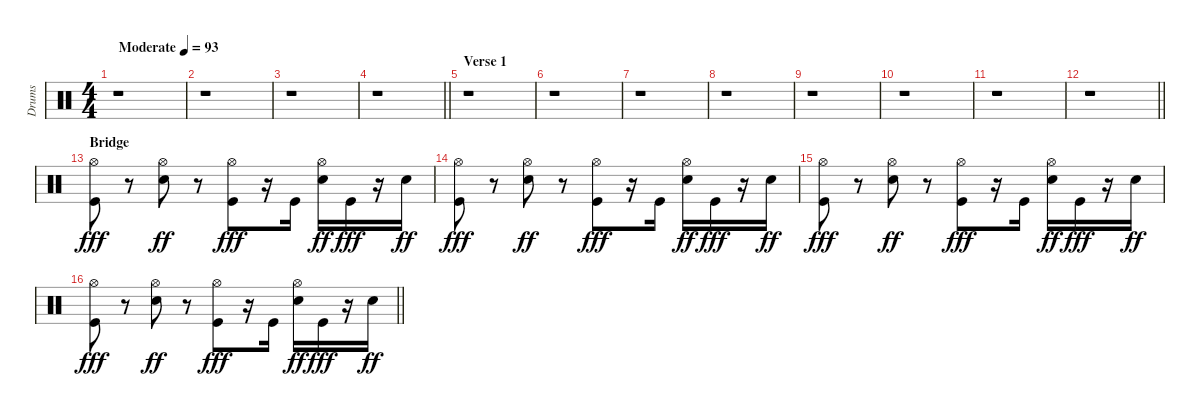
\track ("Drums" "Drums") {instrument percussion}
\staff {score}
\articulation defaults
\ts (4 4)
\tempo (93 "Moderate")
\clef neutral
\ks c
r.1{dy fff} |
r.1 |
r.1 |
\barLineRight lightlight
r.1 |
\section ("" "Verse 1")
r.1 |
r.1 |
r.1 |
r.1 |
r.1 |
r.1 |
r.1 |
\barLineRight lightlight
r.1 |
\section ("" "Bridge")
("Hi-Hat (open)" "Kick (hit)").8 r.8 ("Hi-Hat (open)" "Electric Snare (hit)").8{dy ff} r.8 ("Hi-Hat (open)" "Kick (hit)").8{dy fff} r.16 "Kick (hit)".16 ("Hi-Hat (open)" "Electric Snare (hit)").16{dy ff} "Kick (hit)".16{dy fff} r.16 "Electric Snare (hit)".16{dy ff} |
("Hi-Hat (open)" "Kick (hit)").8{dy fff} r.8 ("Hi-Hat (open)" "Electric Snare (hit)").8{dy ff} r.8 ("Hi-Hat (open)" "Kick (hit)").8{dy fff} r.16 "Kick (hit)".16 ("Hi-Hat (open)" "Electric Snare (hit)").16{dy ff} "Kick (hit)".16{dy fff} r.16 "Electric Snare (hit)".16{dy ff} |
("Hi-Hat (open)" "Kick (hit)").8{dy fff} r.8 ("Hi-Hat (open)" "Electric Snare (hit)").8{dy ff} r.8 ("Hi-Hat (open)" "Kick (hit)").8{dy fff} r.16 "Kick (hit)".16 ("Hi-Hat (open)" "Electric Snare (hit)").16{dy ff} "Kick (hit)".16{dy fff} r.16 "Electric Snare (hit)".16{dy ff} |
\barLineRight lightlight
("Hi-Hat (open)" "Kick (hit)").8{dy fff} r.8 ("Hi-Hat (open)" "Electric Snare (hit)").8{dy ff} r.8 ("Hi-Hat (open)" "Kick (hit)").8{dy fff} r.16 "Kick (hit)".16 ("Hi-Hat (open)" "Electric Snare (hit)").16{dy ff} "Kick (hit)".16{dy fff} r.16 "Electric Snare (hit)".16{dy ff}
